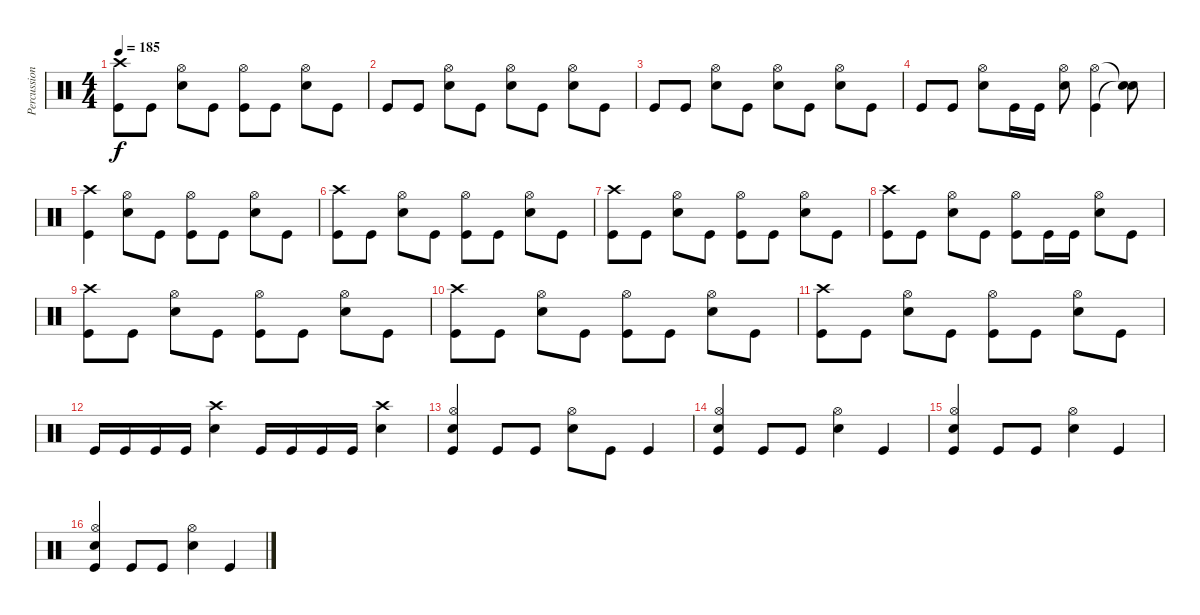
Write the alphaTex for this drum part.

\track ("Percussions" "Percussion") {instrument percussion}
\staff {score}
\articulation defaults
\ts (4 4)
\tempo 185
\clef neutral
\ks c
("Crash high (hit)" "Kick (hit)").8{dy f} "Kick (hit)".8 ("Hi-Hat (open)" "Snare (hit) 2").8 "Kick (hit)".8 ("Hi-Hat (open)" "Kick (hit)").8 "Kick (hit)".8 ("Hi-Hat (open)" "Snare (hit) 2").8 "Kick (hit)".8 |
"Kick (hit)".8 "Kick (hit)".8 ("Hi-Hat (open)" "Snare (hit) 2").8 "Kick (hit)".8 ("Hi-Hat (open)" "Snare (hit) 2").8 "Kick (hit)".8 ("Hi-Hat (open)" "Snare (hit) 2").8 "Kick (hit)".8 |
"Kick (hit)".8 "Kick (hit)".8 ("Hi-Hat (open)" "Snare (hit) 2").8 "Kick (hit)".8 ("Hi-Hat (open)" "Snare (hit) 2").8 "Kick (hit)".8 ("Hi-Hat (open)" "Snare (hit) 2").8 "Kick (hit)".8 |
"Kick (hit)".8 "Kick (hit)".8 ("Hi-Hat (open)" "Snare (hit) 2").8 "Kick (hit)".16 "Kick (hit)".16 ("Hi-Hat (open)" "Snare (hit) 2").8 ("Hi-Hat (open)" "Kick (hit)").4 ("Snare (hit)"{t} "Snare (hit)"{t}).8 |
("Crash high (hit)" "Kick (hit)").4 ("Hi-Hat (open)" "Snare (hit) 2").8 "Kick (hit)".8 ("Hi-Hat (open)" "Kick (hit)").8 "Kick (hit)".8 ("Hi-Hat (open)" "Snare (hit) 2").8 "Kick (hit)".8 |
("Crash high (hit)" "Kick (hit)").8 "Kick (hit)".8 ("Hi-Hat (open)" "Snare (hit) 2").8 "Kick (hit)".8 ("Hi-Hat (open)" "Kick (hit)").8 "Kick (hit)".8 ("Hi-Hat (open)" "Snare (hit) 2").8 "Kick (hit)".8 |
("Crash high (hit)" "Kick (hit)").8 "Kick (hit)".8 ("Hi-Hat (open)" "Snare (hit) 2").8 "Kick (hit)".8 ("Hi-Hat (open)" "Kick (hit)").8 "Kick (hit)".8 ("Hi-Hat (open)" "Snare (hit) 2").8 "Kick (hit)".8 |
("Crash high (hit)" "Kick (hit)").8 "Kick (hit)".8 ("Hi-Hat (open)" "Snare (hit) 2").8 "Kick (hit)".8 ("Hi-Hat (open)" "Kick (hit)").8 "Kick (hit)".16 "Kick (hit)".16 ("Hi-Hat (open)" "Snare (hit) 2").8 "Kick (hit)".8 |
("Crash high (hit)" "Kick (hit)").8 "Kick (hit)".8 ("Hi-Hat (open)" "Snare (hit) 2").8 "Kick (hit)".8 ("Hi-Hat (open)" "Kick (hit)").8 "Kick (hit)".8 ("Hi-Hat (open)" "Snare (hit) 2").8 "Kick (hit)".8 |
("Crash high (hit)" "Kick (hit)").8 "Kick (hit)".8 ("Hi-Hat (open)" "Snare (hit) 2").8 "Kick (hit)".8 ("Hi-Hat (open)" "Kick (hit)").8 "Kick (hit)".8 ("Hi-Hat (open)" "Snare (hit) 2").8 "Kick (hit)".8 |
("Crash high (hit)" "Kick (hit)").8 "Kick (hit)".8 ("Hi-Hat (open)" "Snare (hit) 2").8 "Kick (hit)".8 ("Hi-Hat (open)" "Kick (hit)").8 "Kick (hit)".8 ("Hi-Hat (open)" "Snare (hit) 2").8 "Kick (hit)".8 |
"Kick (hit)".16 "Kick (hit)".16 "Kick (hit)".16 "Kick (hit)".16 ("Crash high (hit)" "Snare (hit) 2").4 "Kick (hit)".16 "Kick (hit)".16 "Kick (hit)".16 "Kick (hit)".16 ("Crash high (hit)" "Snare (hit) 2").4 |
("Hi-Hat (open)" "Snare (hit) 2" "Kick (hit)").4 "Kick (hit)".8 "Kick (hit)".8 ("Hi-Hat (open)" "Snare (hit) 2").8 "Kick (hit)".8 "Kick (hit)".4 |
("Hi-Hat (open)" "Snare (hit) 2" "Kick (hit)").4 "Kick (hit)".8 "Kick (hit)".8 ("Hi-Hat (open)" "Snare (hit) 2").4 "Kick (hit)".4 |
("Hi-Hat (open)" "Snare (hit) 2" "Kick (hit)").4 "Kick (hit)".8 "Kick (hit)".8 ("Hi-Hat (open)" "Snare (hit) 2").4 "Kick (hit)".4 |
("Hi-Hat (open)" "Snare (hit) 2" "Kick (hit)").4 "Kick (hit)".8 "Kick (hit)".8 ("Hi-Hat (open)" "Snare (hit) 2").4 "Kick (hit)".4
